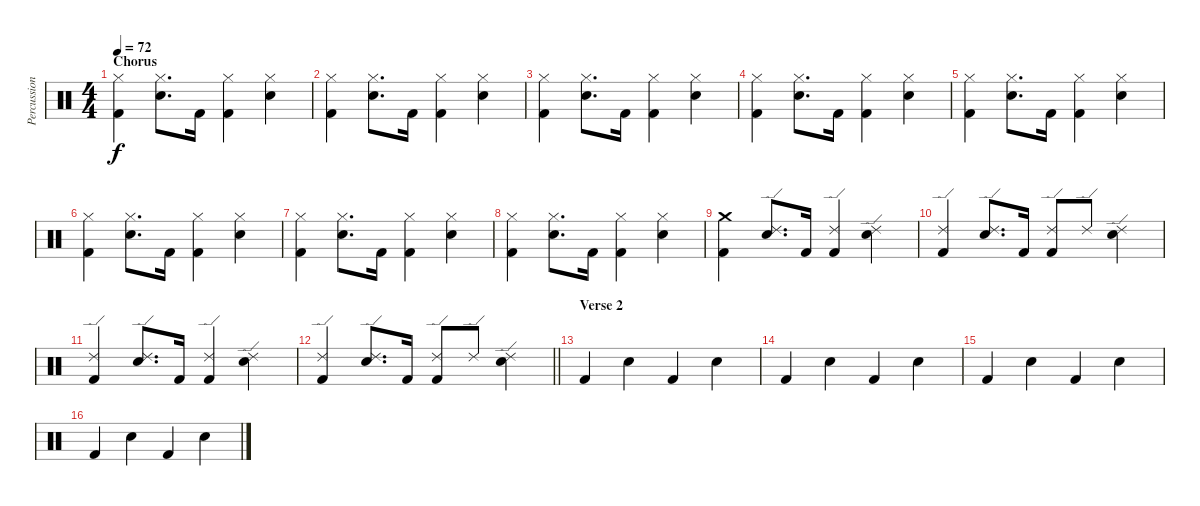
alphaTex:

\track ("Percussion" "Percussion") {instrument percussion}
\staff {score}
\articulation defaults
\ts (4 4)
\section ("" "Chorus")
\tempo 72
\clef neutral
\ks c
("Hi-Hat (closed)" "Kick (hit) 2").4{dy f} ("Hi-Hat (closed)" "Electric Snare (hit)").8{d} "Kick (hit) 2".16 ("Hi-Hat (closed)" "Kick (hit) 2").4 ("Hi-Hat (closed)" "Electric Snare (hit)").4 |
("Hi-Hat (closed)" "Kick (hit) 2").4 ("Hi-Hat (closed)" "Electric Snare (hit)").8{d} "Kick (hit) 2".16 ("Hi-Hat (closed)" "Kick (hit) 2").4 ("Hi-Hat (closed)" "Electric Snare (hit)").4 |
("Hi-Hat (closed)" "Kick (hit) 2").4 ("Hi-Hat (closed)" "Electric Snare (hit)").8{d} "Kick (hit) 2".16 ("Hi-Hat (closed)" "Kick (hit) 2").4 ("Hi-Hat (closed)" "Electric Snare (hit)").4 |
("Hi-Hat (closed)" "Kick (hit) 2").4 ("Hi-Hat (closed)" "Electric Snare (hit)").8{d} "Kick (hit) 2".16 ("Hi-Hat (closed)" "Kick (hit) 2").4 ("Hi-Hat (closed)" "Electric Snare (hit)").4 |
("Hi-Hat (closed)" "Kick (hit) 2").4 ("Hi-Hat (closed)" "Electric Snare (hit)").8{d} "Kick (hit) 2".16 ("Hi-Hat (closed)" "Kick (hit) 2").4 ("Hi-Hat (closed)" "Electric Snare (hit)").4 |
("Hi-Hat (closed)" "Kick (hit) 2").4 ("Hi-Hat (closed)" "Electric Snare (hit)").8{d} "Kick (hit) 2".16 ("Hi-Hat (closed)" "Kick (hit) 2").4 ("Hi-Hat (closed)" "Electric Snare (hit)").4 |
("Hi-Hat (closed)" "Kick (hit) 2").4 ("Hi-Hat (closed)" "Electric Snare (hit)").8{d} "Kick (hit) 2".16 ("Hi-Hat (closed)" "Kick (hit) 2").4 ("Hi-Hat (closed)" "Electric Snare (hit)").4 |
("Hi-Hat (closed)" "Kick (hit) 2").4 ("Hi-Hat (closed)" "Electric Snare (hit)").8{d} "Kick (hit) 2".16 ("Hi-Hat (closed)" "Kick (hit) 2").4 ("Hi-Hat (closed)" "Electric Snare (hit)").4 |
("Crash medium (hit)" "Kick (hit) 2").4 ("Ride (edge) 2" "Electric Snare (hit)").8{d} "Kick (hit) 2".16 ("Ride (edge) 2" "Kick (hit) 2").4 ("Ride (edge) 2" "Electric Snare (hit)").4 |
("Ride (edge) 2" "Kick (hit) 2").4 ("Ride (edge) 2" "Electric Snare (hit)").8{d} "Kick (hit) 2".16 ("Ride (edge) 2" "Kick (hit) 2").8 "Ride (edge) 2".8 ("Ride (edge) 2" "Electric Snare (hit)").4 |
("Ride (edge) 2" "Kick (hit) 2").4 ("Ride (edge) 2" "Electric Snare (hit)").8{d} "Kick (hit) 2".16 ("Ride (edge) 2" "Kick (hit) 2").4 ("Ride (edge) 2" "Electric Snare (hit)").4 |
\barLineRight lightlight
("Ride (edge) 2" "Kick (hit) 2").4 ("Ride (edge) 2" "Electric Snare (hit)").8{d} "Kick (hit) 2".16 ("Ride (edge) 2" "Kick (hit) 2").8 "Ride (edge) 2".8 ("Ride (edge) 2" "Electric Snare (hit)").4 |
\section ("" "Verse 2")
"Kick (hit) 2".4 "Electric Snare (hit)".4 "Kick (hit) 2".4 "Electric Snare (hit)".4 |
"Kick (hit) 2".4 "Electric Snare (hit)".4 "Kick (hit) 2".4 "Electric Snare (hit)".4 |
"Kick (hit) 2".4 "Electric Snare (hit)".4 "Kick (hit) 2".4 "Electric Snare (hit)".4 |
"Kick (hit) 2".4 "Electric Snare (hit)".4 "Kick (hit) 2".4 "Electric Snare (hit)".4
